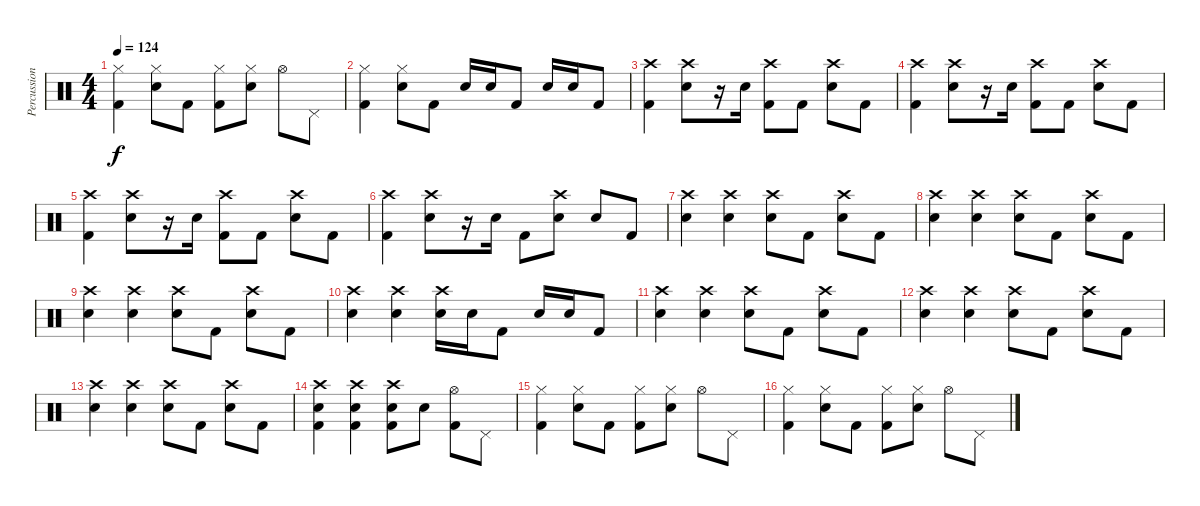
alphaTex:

\track ("Percussion" "Percussion") {instrument percussion}
\staff {score}
\articulation defaults
\ts (4 4)
\tempo 124
\clef neutral
\ks c
("Hi-Hat (closed)" "Kick (hit) 2").4{dy f} ("Hi-Hat (closed)" "Electric Snare (hit)").8 "Kick (hit) 2".8 ("Hi-Hat (closed)" "Kick (hit) 2").8 ("Hi-Hat (closed)" "Electric Snare (hit)").8 "Hi-Hat (open)".8 "Pedal Hi-Hat (hit)".8 |
("Hi-Hat (closed)" "Kick (hit) 2").4 ("Hi-Hat (closed)" "Electric Snare (hit)").8 "Kick (hit) 2".8 "Electric Snare (hit)".16 "Electric Snare (hit)".16 "Kick (hit) 2".8 "Electric Snare (hit)".16 "Electric Snare (hit)".16 "Kick (hit) 2".8 |
("Crash high (hit)" "Kick (hit) 2").4 ("Crash high (hit)" "Electric Snare (hit)").8 r.16 "Electric Snare (hit)".16 ("Crash high (hit)" "Kick (hit) 2").8 "Kick (hit) 2".8 ("Crash high (hit)" "Electric Snare (hit)").8 "Kick (hit) 2".8 |
("Crash high (hit)" "Kick (hit) 2").4 ("Crash high (hit)" "Electric Snare (hit)").8 r.16 "Electric Snare (hit)".16 ("Crash high (hit)" "Kick (hit) 2").8 "Kick (hit) 2".8 ("Crash high (hit)" "Electric Snare (hit)").8 "Kick (hit) 2".8 |
("Crash high (hit)" "Kick (hit) 2").4 ("Crash high (hit)" "Electric Snare (hit)").8 r.16 "Electric Snare (hit)".16 ("Crash high (hit)" "Kick (hit) 2").8 "Kick (hit) 2".8 ("Crash high (hit)" "Electric Snare (hit)").8 "Kick (hit) 2".8 |
("Crash high (hit)" "Kick (hit) 2").4 ("Crash high (hit)" "Electric Snare (hit)").8 r.16 "Electric Snare (hit)".16 "Kick (hit) 2".8 ("Crash high (hit)" "Electric Snare (hit)").8 "Electric Snare (hit)".8 "Kick (hit) 2".8 |
("Crash high (hit)" "Electric Snare (hit)").4 ("Crash high (hit)" "Electric Snare (hit)").4 ("Crash high (hit)" "Electric Snare (hit)").8 "Kick (hit) 2".8 ("Crash high (hit)" "Electric Snare (hit)").8 "Kick (hit) 2".8 |
("Crash high (hit)" "Electric Snare (hit)").4 ("Crash high (hit)" "Electric Snare (hit)").4 ("Crash high (hit)" "Electric Snare (hit)").8 "Kick (hit) 2".8 ("Crash high (hit)" "Electric Snare (hit)").8 "Kick (hit) 2".8 |
("Crash high (hit)" "Electric Snare (hit)").4 ("Crash high (hit)" "Electric Snare (hit)").4 ("Crash high (hit)" "Electric Snare (hit)").8 "Kick (hit) 2".8 ("Crash high (hit)" "Electric Snare (hit)").8 "Kick (hit) 2".8 |
("Crash high (hit)" "Electric Snare (hit)").4 ("Crash high (hit)" "Electric Snare (hit)").4 ("Crash high (hit)" "Electric Snare (hit)").16 "Electric Snare (hit)".16 "Kick (hit) 2".8 "Electric Snare (hit)".16 "Electric Snare (hit)".16 "Kick (hit) 2".8 |
("Crash high (hit)" "Electric Snare (hit)").4 ("Crash high (hit)" "Electric Snare (hit)").4 ("Crash high (hit)" "Electric Snare (hit)").8 "Kick (hit) 2".8 ("Crash high (hit)" "Electric Snare (hit)").8 "Kick (hit) 2".8 |
("Crash high (hit)" "Electric Snare (hit)").4 ("Crash high (hit)" "Electric Snare (hit)").4 ("Crash high (hit)" "Electric Snare (hit)").8 "Kick (hit) 2".8 ("Crash high (hit)" "Electric Snare (hit)").8 "Kick (hit) 2".8 |
("Crash high (hit)" "Electric Snare (hit)").4 ("Crash high (hit)" "Electric Snare (hit)").4 ("Crash high (hit)" "Electric Snare (hit)").8 "Kick (hit) 2".8 ("Crash high (hit)" "Electric Snare (hit)").8 "Kick (hit) 2".8 |
("Crash high (hit)" "Electric Snare (hit)" "Kick (hit) 2").4 ("Crash high (hit)" "Electric Snare (hit)" "Kick (hit) 2").4 ("Crash high (hit)" "Electric Snare (hit)" "Kick (hit) 2").8 "Electric Snare (hit)".8 ("Hi-Hat (open)" "Kick (hit) 2").8 "Pedal Hi-Hat (hit)".8 |
("Hi-Hat (closed)" "Kick (hit) 2").4 ("Hi-Hat (closed)" "Electric Snare (hit)").8 "Kick (hit) 2".8 ("Hi-Hat (closed)" "Kick (hit) 2").8 ("Hi-Hat (closed)" "Electric Snare (hit)").8 "Hi-Hat (open)".8 "Pedal Hi-Hat (hit)".8 |
("Hi-Hat (closed)" "Kick (hit) 2").4 ("Hi-Hat (closed)" "Electric Snare (hit)").8 "Kick (hit) 2".8 ("Hi-Hat (closed)" "Kick (hit) 2").8 ("Hi-Hat (closed)" "Electric Snare (hit)").8 "Hi-Hat (open)".8 "Pedal Hi-Hat (hit)".8
